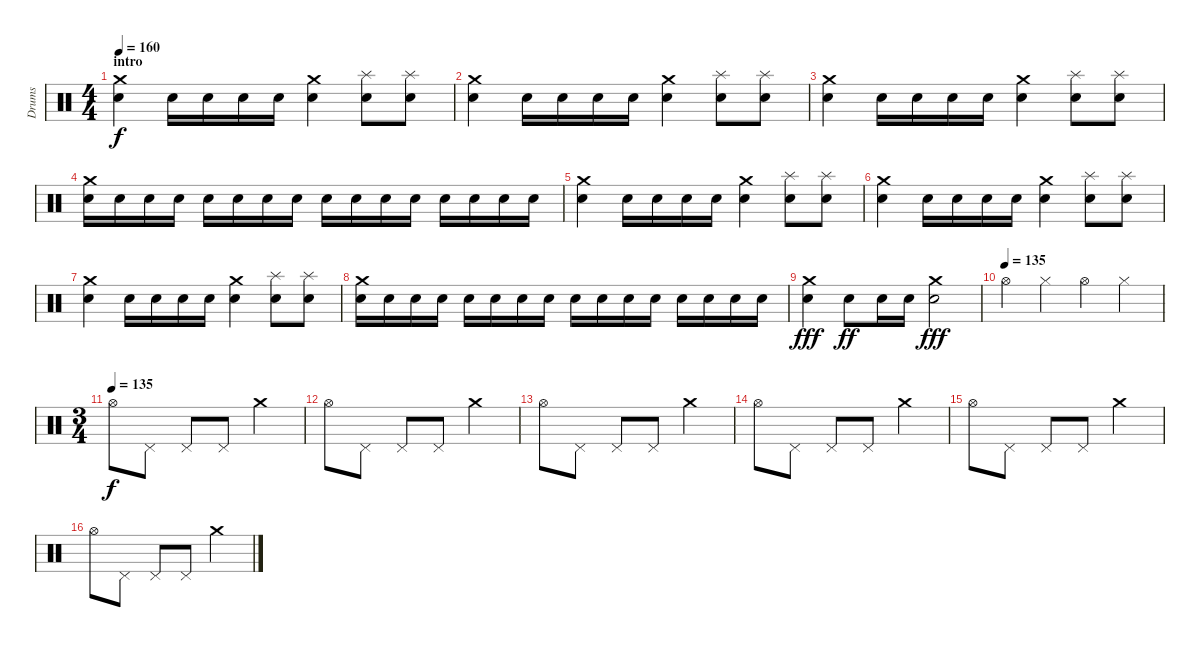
\track ("Drums" "Drums") {instrument percussion}
\staff {score}
\articulation defaults
\ts (4 4)
\section ("" "intro")
\tempo 160
\clef neutral
\ks c
("Electric Snare (hit)" "Crash medium (hit)").4{dy f} "Electric Snare (hit)".16 "Electric Snare (hit)".16 "Electric Snare (hit)".16 "Electric Snare (hit)".16 ("Electric Snare (hit)" "Crash medium (hit)").4 ("Electric Snare (hit)" "Splash (hit)").8 ("Electric Snare (hit)" "Splash (hit)").8 |
("Electric Snare (hit)" "Crash medium (hit)").4 "Electric Snare (hit)".16 "Electric Snare (hit)".16 "Electric Snare (hit)".16 "Electric Snare (hit)".16 ("Electric Snare (hit)" "Crash medium (hit)").4 ("Electric Snare (hit)" "Splash (hit)").8 ("Electric Snare (hit)" "Splash (hit)").8 |
("Electric Snare (hit)" "Crash medium (hit)").4 "Electric Snare (hit)".16 "Electric Snare (hit)".16 "Electric Snare (hit)".16 "Electric Snare (hit)".16 ("Electric Snare (hit)" "Crash medium (hit)").4 ("Electric Snare (hit)" "Splash (hit)").8 ("Electric Snare (hit)" "Splash (hit)").8 |
("Crash medium (hit)" "Electric Snare (hit)").16 "Electric Snare (hit)".16 "Electric Snare (hit)".16 "Electric Snare (hit)".16 "Electric Snare (hit)".16 "Electric Snare (hit)".16 "Electric Snare (hit)".16 "Electric Snare (hit)".16 "Electric Snare (hit)".16 "Electric Snare (hit)".16 "Electric Snare (hit)".16 "Electric Snare (hit)".16 "Electric Snare (hit)".16 "Electric Snare (hit)".16 "Electric Snare (hit)".16 "Electric Snare (hit)".16 |
("Electric Snare (hit)" "Crash medium (hit)").4 "Electric Snare (hit)".16 "Electric Snare (hit)".16 "Electric Snare (hit)".16 "Electric Snare (hit)".16 ("Electric Snare (hit)" "Crash medium (hit)").4 ("Electric Snare (hit)" "Splash (hit)").8 ("Electric Snare (hit)" "Splash (hit)").8 |
("Electric Snare (hit)" "Crash medium (hit)").4 "Electric Snare (hit)".16 "Electric Snare (hit)".16 "Electric Snare (hit)".16 "Electric Snare (hit)".16 ("Electric Snare (hit)" "Crash medium (hit)").4 ("Electric Snare (hit)" "Splash (hit)").8 ("Electric Snare (hit)" "Splash (hit)").8 |
("Electric Snare (hit)" "Crash medium (hit)").4 "Electric Snare (hit)".16 "Electric Snare (hit)".16 "Electric Snare (hit)".16 "Electric Snare (hit)".16 ("Electric Snare (hit)" "Crash medium (hit)").4 ("Electric Snare (hit)" "Splash (hit)").8 ("Electric Snare (hit)" "Splash (hit)").8 |
("Crash medium (hit)" "Electric Snare (hit)").16 "Electric Snare (hit)".16 "Electric Snare (hit)".16 "Electric Snare (hit)".16 "Electric Snare (hit)".16 "Electric Snare (hit)".16 "Electric Snare (hit)".16 "Electric Snare (hit)".16 "Electric Snare (hit)".16 "Electric Snare (hit)".16 "Electric Snare (hit)".16 "Electric Snare (hit)".16 "Electric Snare (hit)".16 "Electric Snare (hit)".16 "Electric Snare (hit)".16 "Electric Snare (hit)".16 |
("Crash medium (hit)" "Electric Snare (hit)").4{dy fff} "Electric Snare (hit)".8{dy ff} "Electric Snare (hit)".16 "Electric Snare (hit)".16 ("Crash medium (hit)" "Electric Snare (hit)").2{dy fff} |
\tempo (135)
"Hi-Hat (open)".4 "Hi-Hat (closed)".4 "Hi-Hat (open)".4 "Hi-Hat (closed)".4 |
\ts (3 4)
\tempo (135)
"Hi-Hat (open)".8{dy f} "Pedal Hi-Hat (hit)".8 "Pedal Hi-Hat (hit)".8 "Pedal Hi-Hat (hit)".8 "Crash medium (hit)".4 |
"Hi-Hat (open)".8 "Pedal Hi-Hat (hit)".8 "Pedal Hi-Hat (hit)".8 "Pedal Hi-Hat (hit)".8 "Crash medium (hit)".4 |
"Hi-Hat (open)".8 "Pedal Hi-Hat (hit)".8 "Pedal Hi-Hat (hit)".8 "Pedal Hi-Hat (hit)".8 "Crash medium (hit)".4 |
"Hi-Hat (open)".8 "Pedal Hi-Hat (hit)".8 "Pedal Hi-Hat (hit)".8 "Pedal Hi-Hat (hit)".8 "Crash medium (hit)".4 |
"Hi-Hat (open)".8 "Pedal Hi-Hat (hit)".8 "Pedal Hi-Hat (hit)".8 "Pedal Hi-Hat (hit)".8 "Crash medium (hit)".4 |
"Hi-Hat (open)".8 "Pedal Hi-Hat (hit)".8 "Pedal Hi-Hat (hit)".8 "Pedal Hi-Hat (hit)".8 "Crash medium (hit)".4
